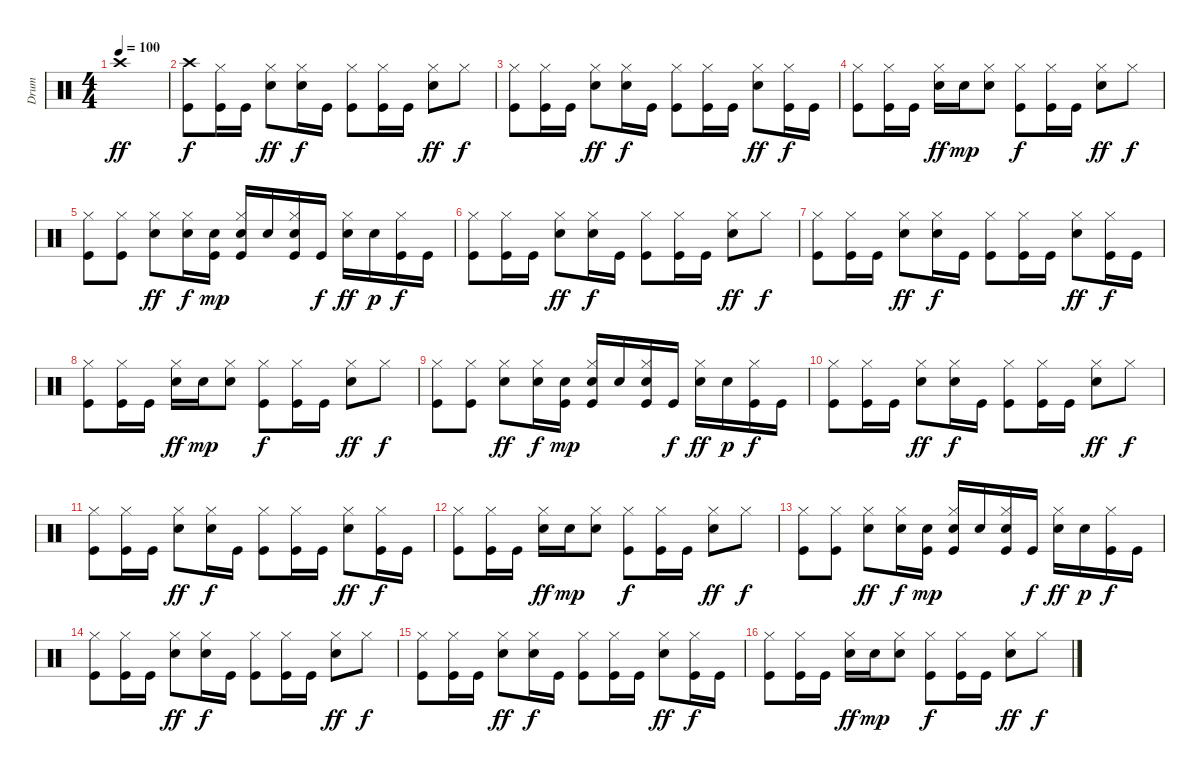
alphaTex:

\track ("Drum" "Drum") {instrument percussion}
\staff {score}
\articulation defaults
\ts (4 4)
\tempo 100
\clef neutral
\ks c "Crash high (hit)".1{dy ff}
|
("Crash high (hit)" "Kick (hit)").8{dy f} ("Hi-Hat (closed)" "Kick (hit)").16 "Kick (hit)".16 ("Hi-Hat (closed)" "Snare (hit) 2").8{dy ff} ("Hi-Hat (closed)" "Snare (hit) 2").16{dy f} "Kick (hit)".16 ("Hi-Hat (closed)" "Kick (hit)").8 ("Hi-Hat (closed)" "Kick (hit)").16 "Kick (hit)".16 ("Hi-Hat (closed)" "Snare (hit) 2").8{dy ff} "Hi-Hat (closed)".8{dy f} |
("Hi-Hat (closed)" "Kick (hit)").8 ("Hi-Hat (closed)" "Kick (hit)").16 "Kick (hit)".16 ("Hi-Hat (closed)" "Snare (hit) 2").8{dy ff} ("Hi-Hat (closed)" "Snare (hit) 2").16{dy f} "Kick (hit)".16 ("Hi-Hat (closed)" "Kick (hit)").8 ("Hi-Hat (closed)" "Kick (hit)").16 "Kick (hit)".16 ("Hi-Hat (closed)" "Snare (hit) 2").8{dy ff} ("Hi-Hat (closed)" "Kick (hit)").16{dy f} "Kick (hit)".16 |
("Hi-Hat (closed)" "Kick (hit)").8 ("Hi-Hat (closed)" "Kick (hit)").16 "Kick (hit)".16 ("Hi-Hat (closed)" "Snare (hit) 2").16{dy ff} "Snare (hit) 2".16{dy mp} ("Hi-Hat (closed)" "Snare (hit) 2").8 ("Hi-Hat (closed)" "Kick (hit)").8{dy f} ("Hi-Hat (closed)" "Kick (hit)").16 "Kick (hit)".16 ("Hi-Hat (closed)" "Snare (hit) 2").8{dy ff} "Hi-Hat (closed)".8{dy f} |
("Hi-Hat (closed)" "Kick (hit)").8 ("Hi-Hat (closed)" "Kick (hit)").8 ("Hi-Hat (closed)" "Snare (hit) 2").8{dy ff} ("Hi-Hat (closed)" "Snare (hit) 2").16{dy f} ("Snare (hit) 2" "Kick (hit)").16{dy mp} ("Hi-Hat (closed)" "Snare (hit) 2" "Kick (hit)").16 "Snare (hit) 2".16 ("Hi-Hat (closed)" "Snare (hit) 2" "Kick (hit)").16 "Kick (hit)".16{dy f} ("Hi-Hat (closed)" "Snare (hit) 2").16{dy ff} "Snare (hit) 2".16{dy p} ("Hi-Hat (closed)" "Kick (hit)").16{dy f} "Kick (hit)".16 |
("Hi-Hat (closed)" "Kick (hit)").8 ("Hi-Hat (closed)" "Kick (hit)").16 "Kick (hit)".16 ("Hi-Hat (closed)" "Snare (hit) 2").8{dy ff} ("Hi-Hat (closed)" "Snare (hit) 2").16{dy f} "Kick (hit)".16 ("Hi-Hat (closed)" "Kick (hit)").8 ("Hi-Hat (closed)" "Kick (hit)").16 "Kick (hit)".16 ("Hi-Hat (closed)" "Snare (hit) 2").8{dy ff} "Hi-Hat (closed)".8{dy f} |
("Hi-Hat (closed)" "Kick (hit)").8 ("Hi-Hat (closed)" "Kick (hit)").16 "Kick (hit)".16 ("Hi-Hat (closed)" "Snare (hit) 2").8{dy ff} ("Hi-Hat (closed)" "Snare (hit) 2").16{dy f} "Kick (hit)".16 ("Hi-Hat (closed)" "Kick (hit)").8 ("Hi-Hat (closed)" "Kick (hit)").16 "Kick (hit)".16 ("Hi-Hat (closed)" "Snare (hit) 2").8{dy ff} ("Hi-Hat (closed)" "Kick (hit)").16{dy f} "Kick (hit)".16 |
("Hi-Hat (closed)" "Kick (hit)").8 ("Hi-Hat (closed)" "Kick (hit)").16 "Kick (hit)".16 ("Hi-Hat (closed)" "Snare (hit) 2").16{dy ff} "Snare (hit) 2".16{dy mp} ("Hi-Hat (closed)" "Snare (hit) 2").8 ("Hi-Hat (closed)" "Kick (hit)").8{dy f} ("Hi-Hat (closed)" "Kick (hit)").16 "Kick (hit)".16 ("Hi-Hat (closed)" "Snare (hit) 2").8{dy ff} "Hi-Hat (closed)".8{dy f} |
("Hi-Hat (closed)" "Kick (hit)").8 ("Hi-Hat (closed)" "Kick (hit)").8 ("Hi-Hat (closed)" "Snare (hit) 2").8{dy ff} ("Hi-Hat (closed)" "Snare (hit) 2").16{dy f} ("Snare (hit) 2" "Kick (hit)").16{dy mp} ("Hi-Hat (closed)" "Snare (hit) 2" "Kick (hit)").16 "Snare (hit) 2".16 ("Hi-Hat (closed)" "Snare (hit) 2" "Kick (hit)").16 "Kick (hit)".16{dy f} ("Hi-Hat (closed)" "Snare (hit) 2").16{dy ff} "Snare (hit) 2".16{dy p} ("Hi-Hat (closed)" "Kick (hit)").16{dy f} "Kick (hit)".16 |
("Hi-Hat (closed)" "Kick (hit)").8 ("Hi-Hat (closed)" "Kick (hit)").16 "Kick (hit)".16 ("Hi-Hat (closed)" "Snare (hit) 2").8{dy ff} ("Hi-Hat (closed)" "Snare (hit) 2").16{dy f} "Kick (hit)".16 ("Hi-Hat (closed)" "Kick (hit)").8 ("Hi-Hat (closed)" "Kick (hit)").16 "Kick (hit)".16 ("Hi-Hat (closed)" "Snare (hit) 2").8{dy ff} "Hi-Hat (closed)".8{dy f} |
("Hi-Hat (closed)" "Kick (hit)").8 ("Hi-Hat (closed)" "Kick (hit)").16 "Kick (hit)".16 ("Hi-Hat (closed)" "Snare (hit) 2").8{dy ff} ("Hi-Hat (closed)" "Snare (hit) 2").16{dy f} "Kick (hit)".16 ("Hi-Hat (closed)" "Kick (hit)").8 ("Hi-Hat (closed)" "Kick (hit)").16 "Kick (hit)".16 ("Hi-Hat (closed)" "Snare (hit) 2").8{dy ff} ("Hi-Hat (closed)" "Kick (hit)").16{dy f} "Kick (hit)".16 |
("Hi-Hat (closed)" "Kick (hit)").8 ("Hi-Hat (closed)" "Kick (hit)").16 "Kick (hit)".16 ("Hi-Hat (closed)" "Snare (hit) 2").16{dy ff} "Snare (hit) 2".16{dy mp} ("Hi-Hat (closed)" "Snare (hit) 2").8 ("Hi-Hat (closed)" "Kick (hit)").8{dy f} ("Hi-Hat (closed)" "Kick (hit)").16 "Kick (hit)".16 ("Hi-Hat (closed)" "Snare (hit) 2").8{dy ff} "Hi-Hat (closed)".8{dy f} |
("Hi-Hat (closed)" "Kick (hit)").8 ("Hi-Hat (closed)" "Kick (hit)").8 ("Hi-Hat (closed)" "Snare (hit) 2").8{dy ff} ("Hi-Hat (closed)" "Snare (hit) 2").16{dy f} ("Snare (hit) 2" "Kick (hit)").16{dy mp} ("Hi-Hat (closed)" "Snare (hit) 2" "Kick (hit)").16 "Snare (hit) 2".16 ("Hi-Hat (closed)" "Snare (hit) 2" "Kick (hit)").16 "Kick (hit)".16{dy f} ("Hi-Hat (closed)" "Snare (hit) 2").16{dy ff} "Snare (hit) 2".16{dy p} ("Hi-Hat (closed)" "Kick (hit)").16{dy f} "Kick (hit)".16 |
("Hi-Hat (closed)" "Kick (hit)").8 ("Hi-Hat (closed)" "Kick (hit)").16 "Kick (hit)".16 ("Hi-Hat (closed)" "Snare (hit) 2").8{dy ff} ("Hi-Hat (closed)" "Snare (hit) 2").16{dy f} "Kick (hit)".16 ("Hi-Hat (closed)" "Kick (hit)").8 ("Hi-Hat (closed)" "Kick (hit)").16 "Kick (hit)".16 ("Hi-Hat (closed)" "Snare (hit) 2").8{dy ff} "Hi-Hat (closed)".8{dy f} |
("Hi-Hat (closed)" "Kick (hit)").8 ("Hi-Hat (closed)" "Kick (hit)").16 "Kick (hit)".16 ("Hi-Hat (closed)" "Snare (hit) 2").8{dy ff} ("Hi-Hat (closed)" "Snare (hit) 2").16{dy f} "Kick (hit)".16 ("Hi-Hat (closed)" "Kick (hit)").8 ("Hi-Hat (closed)" "Kick (hit)").16 "Kick (hit)".16 ("Hi-Hat (closed)" "Snare (hit) 2").8{dy ff} ("Hi-Hat (closed)" "Kick (hit)").16{dy f} "Kick (hit)".16 |
("Hi-Hat (closed)" "Kick (hit)").8 ("Hi-Hat (closed)" "Kick (hit)").16 "Kick (hit)".16 ("Hi-Hat (closed)" "Snare (hit) 2").16{dy ff} "Snare (hit) 2".16{dy mp} ("Hi-Hat (closed)" "Snare (hit) 2").8 ("Hi-Hat (closed)" "Kick (hit)").8{dy f} ("Hi-Hat (closed)" "Kick (hit)").16 "Kick (hit)".16 ("Hi-Hat (closed)" "Snare (hit) 2").8{dy ff} "Hi-Hat (closed)".8{dy f}
